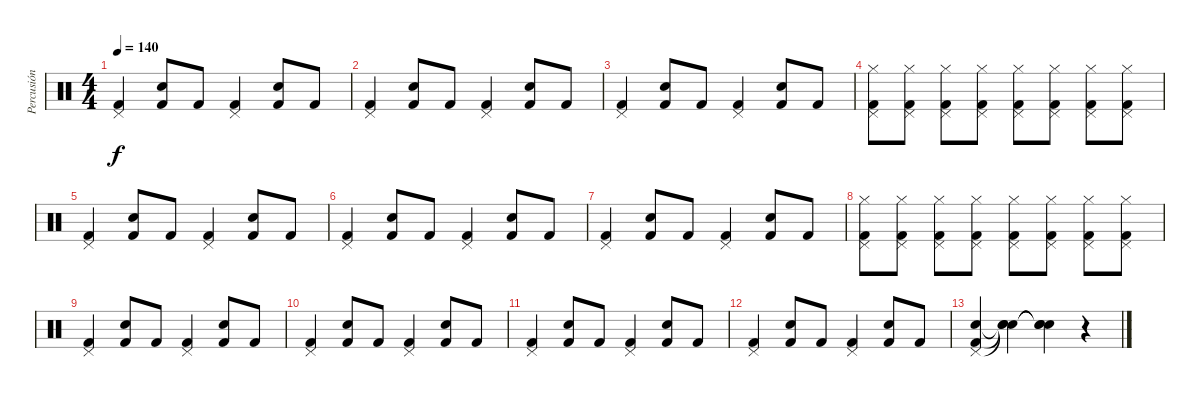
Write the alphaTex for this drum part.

\track ("Percusión" "Percusión") {instrument percussion}
\staff {score}
\articulation defaults
\ts (4 4)
\tempo 140
\clef neutral
\ks c
("Kick (hit) 2" "Pedal Hi-Hat (hit)").4{dy f} ("Kick (hit) 2" "Snare (hit) 2").8 "Kick (hit) 2".8 ("Kick (hit) 2" "Pedal Hi-Hat (hit)").4 ("Kick (hit) 2" "Snare (hit) 2").8 "Kick (hit) 2".8 |
("Kick (hit) 2" "Pedal Hi-Hat (hit)").4 ("Kick (hit) 2" "Snare (hit) 2").8 "Kick (hit) 2".8 ("Kick (hit) 2" "Pedal Hi-Hat (hit)").4 ("Kick (hit) 2" "Snare (hit) 2").8 "Kick (hit) 2".8 |
("Kick (hit) 2" "Pedal Hi-Hat (hit)").4 ("Kick (hit) 2" "Snare (hit) 2").8 "Kick (hit) 2".8 ("Kick (hit) 2" "Pedal Hi-Hat (hit)").4 ("Kick (hit) 2" "Snare (hit) 2").8 "Kick (hit) 2".8 |
("Kick (hit) 2" "Hi-Hat (closed)" "Pedal Hi-Hat (hit)").8 ("Kick (hit) 2" "Hi-Hat (closed)" "Pedal Hi-Hat (hit)").8 ("Kick (hit) 2" "Hi-Hat (closed)" "Pedal Hi-Hat (hit)").8 ("Kick (hit) 2" "Hi-Hat (closed)" "Pedal Hi-Hat (hit)").8 ("Kick (hit) 2" "Hi-Hat (closed)" "Pedal Hi-Hat (hit)").8 ("Kick (hit) 2" "Hi-Hat (closed)" "Pedal Hi-Hat (hit)").8 ("Kick (hit) 2" "Hi-Hat (closed)" "Pedal Hi-Hat (hit)").8 ("Kick (hit) 2" "Hi-Hat (closed)" "Pedal Hi-Hat (hit)").8 |
("Kick (hit) 2" "Pedal Hi-Hat (hit)").4 ("Kick (hit) 2" "Snare (hit) 2").8 "Kick (hit) 2".8 ("Kick (hit) 2" "Pedal Hi-Hat (hit)").4 ("Kick (hit) 2" "Snare (hit) 2").8 "Kick (hit) 2".8 |
("Kick (hit) 2" "Pedal Hi-Hat (hit)").4 ("Kick (hit) 2" "Snare (hit) 2").8 "Kick (hit) 2".8 ("Kick (hit) 2" "Pedal Hi-Hat (hit)").4 ("Kick (hit) 2" "Snare (hit) 2").8 "Kick (hit) 2".8 |
("Kick (hit) 2" "Pedal Hi-Hat (hit)").4 ("Kick (hit) 2" "Snare (hit) 2").8 "Kick (hit) 2".8 ("Kick (hit) 2" "Pedal Hi-Hat (hit)").4 ("Kick (hit) 2" "Snare (hit) 2").8 "Kick (hit) 2".8 |
("Kick (hit) 2" "Hi-Hat (closed)" "Pedal Hi-Hat (hit)").8 ("Kick (hit) 2" "Hi-Hat (closed)" "Pedal Hi-Hat (hit)").8 ("Kick (hit) 2" "Hi-Hat (closed)" "Pedal Hi-Hat (hit)").8 ("Kick (hit) 2" "Hi-Hat (closed)" "Pedal Hi-Hat (hit)").8 ("Kick (hit) 2" "Hi-Hat (closed)" "Pedal Hi-Hat (hit)").8 ("Kick (hit) 2" "Hi-Hat (closed)" "Pedal Hi-Hat (hit)").8 ("Kick (hit) 2" "Hi-Hat (closed)" "Pedal Hi-Hat (hit)").8 ("Kick (hit) 2" "Hi-Hat (closed)" "Pedal Hi-Hat (hit)").8 |
("Kick (hit) 2" "Pedal Hi-Hat (hit)").4 ("Kick (hit) 2" "Snare (hit) 2").8 "Kick (hit) 2".8 ("Kick (hit) 2" "Pedal Hi-Hat (hit)").4 ("Kick (hit) 2" "Snare (hit) 2").8 "Kick (hit) 2".8 |
("Kick (hit) 2" "Pedal Hi-Hat (hit)").4 ("Kick (hit) 2" "Snare (hit) 2").8 "Kick (hit) 2".8 ("Kick (hit) 2" "Pedal Hi-Hat (hit)").4 ("Kick (hit) 2" "Snare (hit) 2").8 "Kick (hit) 2".8 |
("Kick (hit) 2" "Pedal Hi-Hat (hit)").4 ("Kick (hit) 2" "Snare (hit) 2").8 "Kick (hit) 2".8 ("Kick (hit) 2" "Pedal Hi-Hat (hit)").4 ("Kick (hit) 2" "Snare (hit) 2").8 "Kick (hit) 2".8 |
("Kick (hit) 2" "Pedal Hi-Hat (hit)").4 ("Kick (hit) 2" "Snare (hit) 2").8 "Kick (hit) 2".8 ("Kick (hit) 2" "Pedal Hi-Hat (hit)").4 ("Kick (hit) 2" "Snare (hit) 2").8 "Kick (hit) 2".8 |
("Kick (hit) 2" "Snare (hit) 2" "Pedal Hi-Hat (hit)").4 ("Snare (hit)"{t} "Snare (hit)"{t} "Snare (hit)"{t}).4 ("Snare (hit)"{t} "Snare (hit)"{t} "Snare (hit)"{t}).4 r.4
